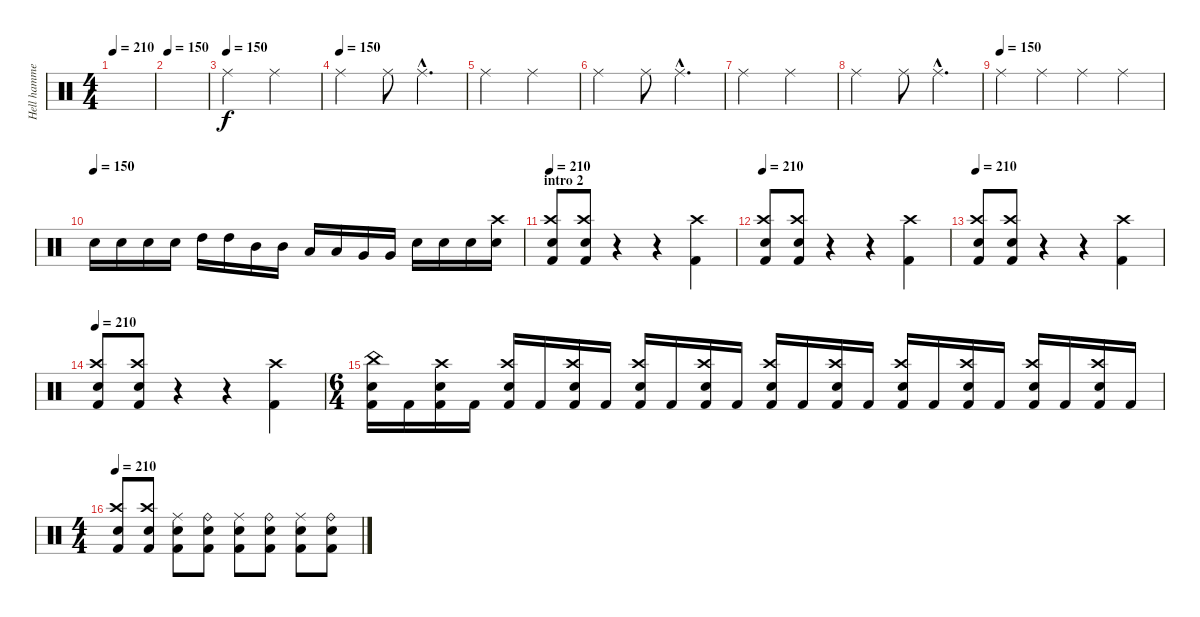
\track ("Hell hammers" "Hell hamme") {instrument percussion}
\staff {score}
\articulation defaults
\ts (4 4)
\tempo 210
\tempo 150
\tempo 210
\clef neutral
\ks c
|
\tempo 150
|
\tempo (150)
"Ride (middle)".2 "Ride (middle)".2 |
\tempo (150)
"Ride (middle)".2 "Ride (middle)".8 "Ride (middle)"{hac}.4{d} |
"Ride (middle)".2 "Ride (middle)".2 |
"Ride (middle)".2 "Ride (middle)".8 "Ride (middle)"{hac}.4{d} |
"Ride (middle)".2 "Ride (middle)".2 |
"Ride (middle)".2 "Ride (middle)".8 "Ride (middle)"{hac}.4{d} |
\tempo (150)
"Ride (middle)".4 "Ride (middle)".4 "Ride (middle)".4 "Ride (middle)".4 |
\tempo (150)
"Snare (hit) 2".16 "Snare (hit) 2".16 "Snare (hit) 2".16 "Snare (hit) 2".16 "High Tom (hit)".16 "High Tom (hit)".16 "Mid Tom (hit)".16 "Mid Tom (hit)".16 "Low Tom (hit)".16 "Low Tom (hit)".16 "Very Low Tom (hit)".16 "Very Low Tom (hit)".16 "Snare (hit) 2".16 "Snare (hit) 2".16 "Snare (hit) 2".16 ("Crash high (hit)" "Snare (hit) 2").16 |
\section ("" "intro 2")
\tempo 210
("Crash high (hit)" "Snare (hit) 2" "Kick (hit) 2").8 ("Crash high (hit)" "Snare (hit) 2" "Kick (hit) 2").8 r.4 r.4 ("Crash high (hit)" "Kick (hit) 2").4 |
\tempo 210
("Crash high (hit)" "Snare (hit) 2" "Kick (hit) 2").8 ("Crash high (hit)" "Snare (hit) 2" "Kick (hit) 2").8 r.4 r.4 ("Crash high (hit)" "Kick (hit) 2").4 |
\tempo 210
("Crash high (hit)" "Snare (hit) 2" "Kick (hit) 2").8 ("Crash high (hit)" "Snare (hit) 2" "Kick (hit) 2").8 r.4 r.4 ("Crash high (hit)" "Kick (hit) 2").4 |
\tempo 210
("Crash high (hit)" "Snare (hit) 2" "Kick (hit) 2").8 ("Crash high (hit)" "Snare (hit) 2" "Kick (hit) 2").8 r.4 r.4 ("Crash high (hit)" "Kick (hit) 2").4 |
\ts (6 4)
("China (hit)" "Snare (hit) 2" "Kick (hit) 2").16 "Kick (hit) 2".16 ("Crash high (hit)" "Snare (hit) 2" "Kick (hit) 2").16 "Kick (hit) 2".16 ("Crash high (hit)" "Snare (hit) 2" "Kick (hit) 2").16 "Kick (hit) 2".16 ("Crash high (hit)" "Snare (hit) 2" "Kick (hit) 2").16 "Kick (hit) 2".16 ("Crash high (hit)" "Snare (hit) 2" "Kick (hit) 2").16 "Kick (hit) 2".16 ("Crash high (hit)" "Snare (hit) 2" "Kick (hit) 2").16 "Kick (hit) 2".16 ("Crash high (hit)" "Snare (hit) 2" "Kick (hit) 2").16 "Kick (hit) 2".16 ("Crash high (hit)" "Snare (hit) 2" "Kick (hit) 2").16 "Kick (hit) 2".16 ("Crash high (hit)" "Snare (hit) 2" "Kick (hit) 2").16 "Kick (hit) 2".16 ("Crash high (hit)" "Snare (hit) 2" "Kick (hit) 2").16 "Kick (hit) 2".16 ("Crash high (hit)" "Snare (hit) 2" "Kick (hit) 2").16 "Kick (hit) 2".16 ("Crash high (hit)" "Snare (hit) 2" "Kick (hit) 2").16 "Kick (hit) 2".16 |
\ts (4 4)
\tempo 210
("Crash high (hit)" "Snare (hit) 2" "Kick (hit) 2").8 ("Crash high (hit)" "Snare (hit) 2" "Kick (hit) 2").8 ("Ride (middle)" "Snare (hit) 2" "Kick (hit) 2").8 ("Ride (bell)" "Snare (hit) 2" "Kick (hit) 2").8 ("Ride (middle)" "Snare (hit) 2" "Kick (hit) 2").8 ("Ride (bell)" "Snare (hit) 2" "Kick (hit) 2").8 ("Ride (middle)" "Snare (hit) 2" "Kick (hit) 2").8 ("Ride (bell)" "Snare (hit) 2" "Kick (hit) 2").8
